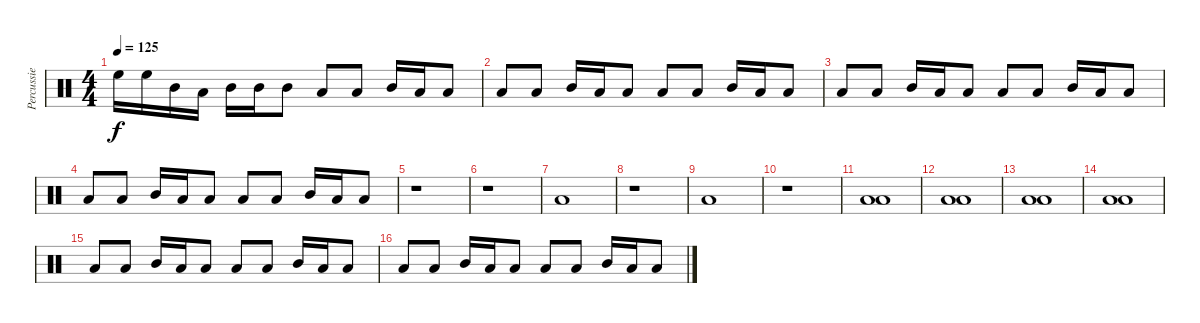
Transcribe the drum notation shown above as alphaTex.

\track ("Percussie" "Percussie") {instrument percussion}
\staff {score}
\articulation defaults
\ts (4 4)
\tempo 125
\clef neutral
\ks c "High Floor Tom (hit)".16{dy f} "High Floor Tom (hit)".16 "Mid Tom (hit)".16 "Low Tom (hit)".16 "Mid Tom (hit)".16 "Mid Tom (hit)".16 "Mid Tom (hit)".8 "Low Tom (hit)".8 "Low Tom (hit)".8 "Mid Tom (hit)".16 "Low Tom (hit)".16 "Low Floor Tom (hit)".8
|
"Low Floor Tom (hit)".8 "Low Floor Tom (hit)".8 "Mid Tom (hit)".16 "Low Tom (hit)".16 "Low Floor Tom (hit)".8 "Low Floor Tom (hit)".8 "Low Floor Tom (hit)".8 "Mid Tom (hit)".16 "Low Tom (hit)".16 "Low Floor Tom (hit)".8 |
"Low Floor Tom (hit)".8 "Low Floor Tom (hit)".8 "Mid Tom (hit)".16 "Low Tom (hit)".16 "Low Floor Tom (hit)".8 "Low Floor Tom (hit)".8 "Low Floor Tom (hit)".8 "Mid Tom (hit)".16 "Low Tom (hit)".16 "Low Floor Tom (hit)".8 |
"Low Floor Tom (hit)".8 "Low Floor Tom (hit)".8 "Mid Tom (hit)".16 "Low Tom (hit)".16 "Low Floor Tom (hit)".8 "Low Floor Tom (hit)".8 "Low Floor Tom (hit)".8 "Mid Tom (hit)".16 "Low Tom (hit)".16 "Low Floor Tom (hit)".8 |
r.1 |
r.1 |
"Low Floor Tom (hit)".1 |
r.1 |
"Low Floor Tom (hit)".1 |
r.1 |
("Low Floor Tom (hit)" "Low Floor Tom (hit)").1 |
("Low Floor Tom (hit)" "Low Floor Tom (hit)").1 |
("Low Floor Tom (hit)" "Low Floor Tom (hit)").1 |
("Low Floor Tom (hit)" "Low Floor Tom (hit)").1 |
"Low Floor Tom (hit)".8 "Low Floor Tom (hit)".8 "Mid Tom (hit)".16 "Low Tom (hit)".16 "Low Floor Tom (hit)".8 "Low Floor Tom (hit)".8 "Low Floor Tom (hit)".8 "Mid Tom (hit)".16 "Low Tom (hit)".16 "Low Floor Tom (hit)".8 |
"Low Floor Tom (hit)".8 "Low Floor Tom (hit)".8 "Mid Tom (hit)".16 "Low Tom (hit)".16 "Low Floor Tom (hit)".8 "Low Floor Tom (hit)".8 "Low Floor Tom (hit)".8 "Mid Tom (hit)".16 "Low Tom (hit)".16 "Low Floor Tom (hit)".8
